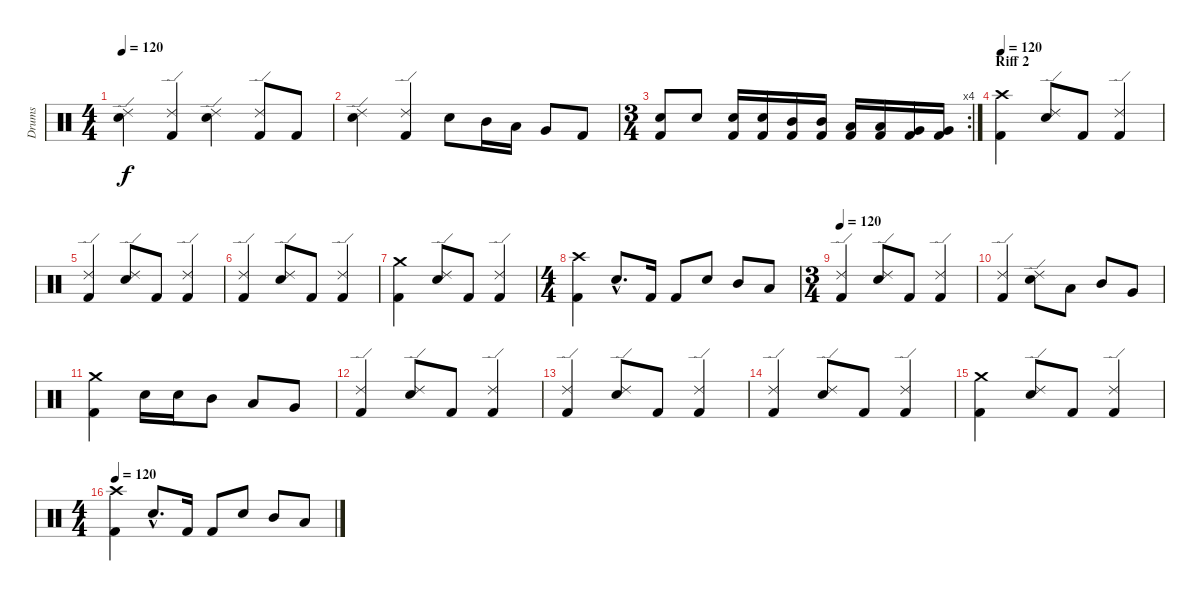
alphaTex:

\track ("Drums" "Drums") {instrument percussion}
\staff {score}
\articulation defaults
\ts (4 4)
\tempo 120
\clef neutral
\ks c
("Snare (hit) 2" "Ride (edge) 2").4{dy f} ("Kick (hit) 2" "Ride (edge) 2").4 ("Snare (hit) 2" "Ride (edge) 2").4 ("Kick (hit) 2" "Ride (edge) 2").8 "Kick (hit) 2".8 |
("Snare (hit) 2" "Ride (edge) 2").4 ("Kick (hit) 2" "Ride (edge) 2").4 "Snare (hit) 2".8 "Mid Tom (hit)".16 "Low Tom (hit)".16 "Very Low Tom (hit)".8 "Kick (hit) 2".8 |
\rc 4
\ts (3 4)
("Kick (hit) 2" "Snare (hit) 2").8 "Snare (hit) 2".8 ("Kick (hit) 2" "Snare (hit) 2").16 ("Kick (hit) 2" "Snare (hit) 2").16 ("Kick (hit) 2" "Mid Tom (hit)").16 ("Kick (hit) 2" "Mid Tom (hit)").16 ("Kick (hit) 2" "Low Tom (hit)").16 ("Kick (hit) 2" "Low Tom (hit)").16 ("Kick (hit) 2" "Very Low Tom (hit)").16 ("Kick (hit) 2" "Very Low Tom (hit)").16 |
\section ("" "Riff 2")
\tempo 120
("Kick (hit) 2" "Crash high (hit)").4 ("Snare (hit) 2" "Ride (edge) 2").8 "Kick (hit) 2".8 ("Kick (hit) 2" "Ride (edge) 2").4 |
("Kick (hit) 2" "Ride (edge) 2").4 ("Snare (hit) 2" "Ride (edge) 2").8 "Kick (hit) 2".8 ("Kick (hit) 2" "Ride (edge) 2").4 |
("Kick (hit) 2" "Ride (edge) 2").4 ("Snare (hit) 2" "Ride (edge) 2").8 "Kick (hit) 2".8 ("Kick (hit) 2" "Ride (edge) 2").4 |
("Kick (hit) 2" "Crash medium (hit)").4 ("Snare (hit) 2" "Ride (edge) 2").8 "Kick (hit) 2".8 ("Kick (hit) 2" "Ride (edge) 2").4 |
\ts (4 4)
("Kick (hit) 2" "Crash high (hit)").4 "Snare (hit) 2"{hac}.8{d} "Kick (hit) 2".16 "Kick (hit) 2".8 "Snare (hit) 2".8 "Mid Tom (hit)".8 "Low Tom (hit)".8 |
\ts (3 4)
\tempo 120
("Kick (hit) 2" "Ride (edge) 2").4 ("Snare (hit) 2" "Ride (edge) 2").8 "Kick (hit) 2".8 ("Kick (hit) 2" "Ride (edge) 2").4 |
("Kick (hit) 2" "Ride (edge) 2").4 ("Snare (hit) 2" "Ride (edge) 2").8 "Low Tom (hit)".8 "Mid Tom (hit)".8 "Very Low Tom (hit)".8 |
("Kick (hit) 2" "Crash medium (hit)").4 "Snare (hit) 2".16 "Snare (hit) 2".16 "Mid Tom (hit)".8 "Low Tom (hit)".8 "Very Low Tom (hit)".8 |
("Kick (hit) 2" "Ride (edge) 2").4 ("Snare (hit) 2" "Ride (edge) 2").8 "Kick (hit) 2".8 ("Kick (hit) 2" "Ride (edge) 2").4 |
("Kick (hit) 2" "Ride (edge) 2").4 ("Snare (hit) 2" "Ride (edge) 2").8 "Kick (hit) 2".8 ("Kick (hit) 2" "Ride (edge) 2").4 |
("Kick (hit) 2" "Ride (edge) 2").4 ("Snare (hit) 2" "Ride (edge) 2").8 "Kick (hit) 2".8 ("Kick (hit) 2" "Ride (edge) 2").4 |
("Kick (hit) 2" "Crash medium (hit)").4 ("Snare (hit) 2" "Ride (edge) 2").8 "Kick (hit) 2".8 ("Kick (hit) 2" "Ride (edge) 2").4 |
\ts (4 4)
\tempo 120
("Kick (hit) 2" "Crash high (hit)").4 "Snare (hit) 2"{hac}.8{d} "Kick (hit) 2".16 "Kick (hit) 2".8 "Snare (hit) 2".8 "Mid Tom (hit)".8 "Low Tom (hit)".8
